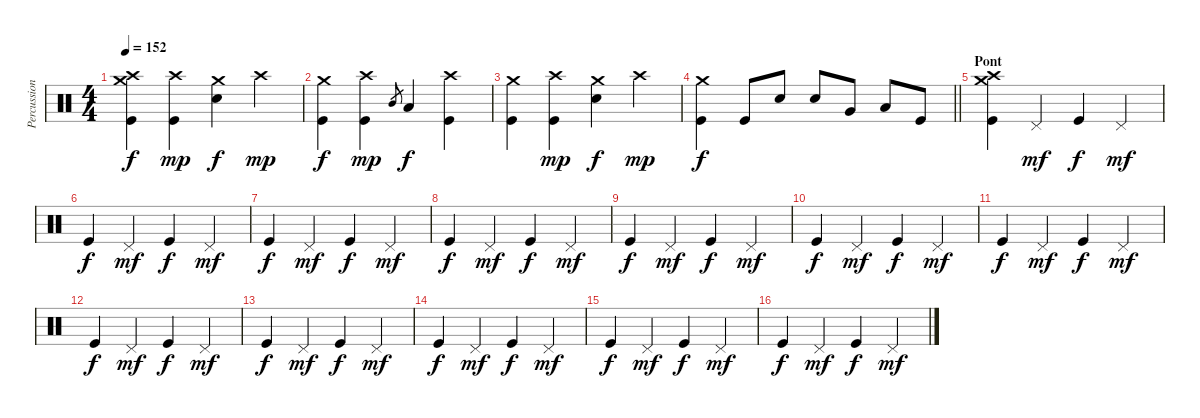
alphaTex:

\track ("Percussions" "Percussion") {instrument percussion}
\staff {score}
\articulation defaults
\ts (4 4)
\tempo 152
\clef neutral
\ks c
("Crash high (hit)" "Crash medium (hit)" "Kick (hit)").4{dy f} ("Crash high (hit)" "Kick (hit)").4{dy mp} ("Crash medium (hit)" "Snare (hit) 2").4{dy f} "Crash high (hit)".4{dy mp} |
("Crash medium (hit)" "Kick (hit)").4{dy f} ("Crash high (hit)" "Kick (hit)").4{dy mp} "Mid Tom (hit)".8{gr} "Low Tom (hit)".4{dy f} ("Crash high (hit)" "Kick (hit)").4 |
("Crash medium (hit)" "Kick (hit)").4 ("Crash high (hit)" "Kick (hit)").4{dy mp} ("Crash medium (hit)" "Snare (hit) 2").4{dy f} "Crash high (hit)".4{dy mp} |
\barLineRight lightlight
("Crash medium (hit)" "Kick (hit)").4{dy f} "Kick (hit)".8 "Snare (hit) 2".8 "Snare (hit) 2".8 "Very Low Tom (hit)".8 "Low Tom (hit)".8 "Kick (hit)".8 |
\section ("" "Pont")
("Crash medium (hit)" "Crash high (hit)" "Kick (hit)").4 "Pedal Hi-Hat (hit)".4{dy mf} "Kick (hit)".4{dy f} "Pedal Hi-Hat (hit)".4{dy mf} |
"Kick (hit)".4{dy f} "Pedal Hi-Hat (hit)".4{dy mf} "Kick (hit)".4{dy f} "Pedal Hi-Hat (hit)".4{dy mf} |
"Kick (hit)".4{dy f} "Pedal Hi-Hat (hit)".4{dy mf} "Kick (hit)".4{dy f} "Pedal Hi-Hat (hit)".4{dy mf} |
"Kick (hit)".4{dy f} "Pedal Hi-Hat (hit)".4{dy mf} "Kick (hit)".4{dy f} "Pedal Hi-Hat (hit)".4{dy mf} |
"Kick (hit)".4{dy f} "Pedal Hi-Hat (hit)".4{dy mf} "Kick (hit)".4{dy f} "Pedal Hi-Hat (hit)".4{dy mf} |
"Kick (hit)".4{dy f} "Pedal Hi-Hat (hit)".4{dy mf} "Kick (hit)".4{dy f} "Pedal Hi-Hat (hit)".4{dy mf} |
"Kick (hit)".4{dy f} "Pedal Hi-Hat (hit)".4{dy mf} "Kick (hit)".4{dy f} "Pedal Hi-Hat (hit)".4{dy mf} |
"Kick (hit)".4{dy f} "Pedal Hi-Hat (hit)".4{dy mf} "Kick (hit)".4{dy f} "Pedal Hi-Hat (hit)".4{dy mf} |
"Kick (hit)".4{dy f} "Pedal Hi-Hat (hit)".4{dy mf} "Kick (hit)".4{dy f} "Pedal Hi-Hat (hit)".4{dy mf} |
"Kick (hit)".4{dy f} "Pedal Hi-Hat (hit)".4{dy mf} "Kick (hit)".4{dy f} "Pedal Hi-Hat (hit)".4{dy mf} |
"Kick (hit)".4{dy f} "Pedal Hi-Hat (hit)".4{dy mf} "Kick (hit)".4{dy f} "Pedal Hi-Hat (hit)".4{dy mf} |
"Kick (hit)".4{dy f} "Pedal Hi-Hat (hit)".4{dy mf} "Kick (hit)".4{dy f} "Pedal Hi-Hat (hit)".4{dy mf}
